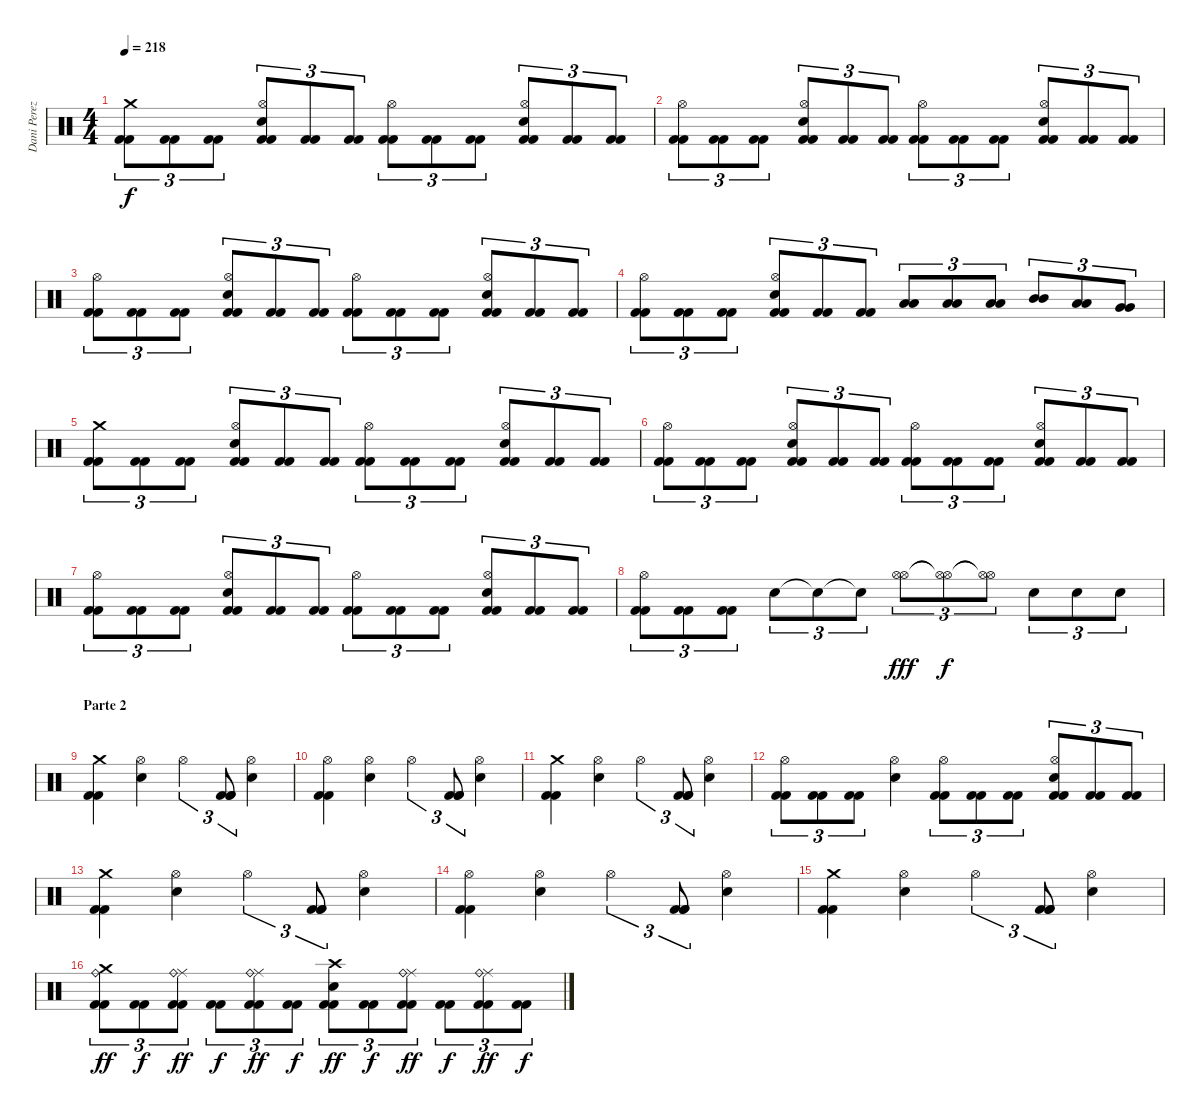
\track ("Dani Perez" "Dani Perez") {instrument percussion}
\staff {score}
\articulation defaults
\ts (4 4)
\tempo 218
\clef neutral
\ks c
("Crash medium (hit)" "Kick (hit) 2" "Kick (hit) 2").8{tu (3 2) dy f} ("Kick (hit) 2" "Kick (hit) 2").8{tu (3 2)} ("Kick (hit) 2" "Kick (hit) 2").8{tu (3 2)} ("Hi-Hat (open)" "Snare (hit) 2" "Kick (hit) 2" "Kick (hit) 2").8{tu (3 2)} ("Kick (hit) 2" "Kick (hit) 2").8{tu (3 2)} ("Kick (hit) 2" "Kick (hit) 2").8{tu (3 2)} ("Hi-Hat (open)" "Kick (hit) 2" "Kick (hit) 2").8{tu (3 2)} ("Kick (hit) 2" "Kick (hit) 2").8{tu (3 2)} ("Kick (hit) 2" "Kick (hit) 2").8{tu (3 2)} ("Hi-Hat (open)" "Snare (hit) 2" "Kick (hit) 2" "Kick (hit) 2").8{tu (3 2)} ("Kick (hit) 2" "Kick (hit) 2").8{tu (3 2)} ("Kick (hit) 2" "Kick (hit) 2").8{tu (3 2)} |
("Hi-Hat (open)" "Kick (hit) 2" "Kick (hit) 2").8{tu (3 2)} ("Kick (hit) 2" "Kick (hit) 2").8{tu (3 2)} ("Kick (hit) 2" "Kick (hit) 2").8{tu (3 2)} ("Hi-Hat (open)" "Snare (hit) 2" "Kick (hit) 2" "Kick (hit) 2").8{tu (3 2)} ("Kick (hit) 2" "Kick (hit) 2").8{tu (3 2)} ("Kick (hit) 2" "Kick (hit) 2").8{tu (3 2)} ("Hi-Hat (open)" "Kick (hit) 2" "Kick (hit) 2").8{tu (3 2)} ("Kick (hit) 2" "Kick (hit) 2").8{tu (3 2)} ("Kick (hit) 2" "Kick (hit) 2").8{tu (3 2)} ("Hi-Hat (open)" "Snare (hit) 2" "Kick (hit) 2" "Kick (hit) 2").8{tu (3 2)} ("Kick (hit) 2" "Kick (hit) 2").8{tu (3 2)} ("Kick (hit) 2" "Kick (hit) 2").8{tu (3 2)} |
("Hi-Hat (open)" "Kick (hit) 2" "Kick (hit) 2").8{tu (3 2)} ("Kick (hit) 2" "Kick (hit) 2").8{tu (3 2)} ("Kick (hit) 2" "Kick (hit) 2").8{tu (3 2)} ("Hi-Hat (open)" "Snare (hit) 2" "Kick (hit) 2" "Kick (hit) 2").8{tu (3 2)} ("Kick (hit) 2" "Kick (hit) 2").8{tu (3 2)} ("Kick (hit) 2" "Kick (hit) 2").8{tu (3 2)} ("Hi-Hat (open)" "Kick (hit) 2" "Kick (hit) 2").8{tu (3 2)} ("Kick (hit) 2" "Kick (hit) 2").8{tu (3 2)} ("Kick (hit) 2" "Kick (hit) 2").8{tu (3 2)} ("Hi-Hat (open)" "Snare (hit) 2" "Kick (hit) 2" "Kick (hit) 2").8{tu (3 2)} ("Kick (hit) 2" "Kick (hit) 2").8{tu (3 2)} ("Kick (hit) 2" "Kick (hit) 2").8{tu (3 2)} |
("Hi-Hat (open)" "Kick (hit) 2" "Kick (hit) 2").8{tu (3 2)} ("Kick (hit) 2" "Kick (hit) 2").8{tu (3 2)} ("Kick (hit) 2" "Kick (hit) 2").8{tu (3 2)} ("Hi-Hat (open)" "Snare (hit) 2" "Kick (hit) 2" "Kick (hit) 2").8{tu (3 2)} ("Kick (hit) 2" "Kick (hit) 2").8{tu (3 2)} ("Kick (hit) 2" "Kick (hit) 2").8{tu (3 2)} ("Low Tom (hit)" "Low Tom (hit)").8{tu (3 2)} ("Low Tom (hit)" "Low Tom (hit)").8{tu (3 2)} ("Low Tom (hit)" "Low Tom (hit)").8{tu (3 2)} ("Mid Tom (hit)" "Mid Tom (hit)").8{tu (3 2)} ("Low Tom (hit)" "Low Tom (hit)").8{tu (3 2)} ("Very Low Tom (hit)" "Very Low Tom (hit)").8{tu (3 2)} |
("Crash medium (hit)" "Kick (hit) 2" "Kick (hit) 2").8{tu (3 2)} ("Kick (hit) 2" "Kick (hit) 2").8{tu (3 2)} ("Kick (hit) 2" "Kick (hit) 2").8{tu (3 2)} ("Hi-Hat (open)" "Snare (hit) 2" "Kick (hit) 2" "Kick (hit) 2").8{tu (3 2)} ("Kick (hit) 2" "Kick (hit) 2").8{tu (3 2)} ("Kick (hit) 2" "Kick (hit) 2").8{tu (3 2)} ("Hi-Hat (open)" "Kick (hit) 2" "Kick (hit) 2").8{tu (3 2)} ("Kick (hit) 2" "Kick (hit) 2").8{tu (3 2)} ("Kick (hit) 2" "Kick (hit) 2").8{tu (3 2)} ("Hi-Hat (open)" "Snare (hit) 2" "Kick (hit) 2" "Kick (hit) 2").8{tu (3 2)} ("Kick (hit) 2" "Kick (hit) 2").8{tu (3 2)} ("Kick (hit) 2" "Kick (hit) 2").8{tu (3 2)} |
("Hi-Hat (open)" "Kick (hit) 2" "Kick (hit) 2").8{tu (3 2)} ("Kick (hit) 2" "Kick (hit) 2").8{tu (3 2)} ("Kick (hit) 2" "Kick (hit) 2").8{tu (3 2)} ("Hi-Hat (open)" "Snare (hit) 2" "Kick (hit) 2" "Kick (hit) 2").8{tu (3 2)} ("Kick (hit) 2" "Kick (hit) 2").8{tu (3 2)} ("Kick (hit) 2" "Kick (hit) 2").8{tu (3 2)} ("Hi-Hat (open)" "Kick (hit) 2" "Kick (hit) 2").8{tu (3 2)} ("Kick (hit) 2" "Kick (hit) 2").8{tu (3 2)} ("Kick (hit) 2" "Kick (hit) 2").8{tu (3 2)} ("Hi-Hat (open)" "Snare (hit) 2" "Kick (hit) 2" "Kick (hit) 2").8{tu (3 2)} ("Kick (hit) 2" "Kick (hit) 2").8{tu (3 2)} ("Kick (hit) 2" "Kick (hit) 2").8{tu (3 2)} |
("Hi-Hat (open)" "Kick (hit) 2" "Kick (hit) 2").8{tu (3 2)} ("Kick (hit) 2" "Kick (hit) 2").8{tu (3 2)} ("Kick (hit) 2" "Kick (hit) 2").8{tu (3 2)} ("Hi-Hat (open)" "Snare (hit) 2" "Kick (hit) 2" "Kick (hit) 2").8{tu (3 2)} ("Kick (hit) 2" "Kick (hit) 2").8{tu (3 2)} ("Kick (hit) 2" "Kick (hit) 2").8{tu (3 2)} ("Hi-Hat (open)" "Kick (hit) 2" "Kick (hit) 2").8{tu (3 2)} ("Kick (hit) 2" "Kick (hit) 2").8{tu (3 2)} ("Kick (hit) 2" "Kick (hit) 2").8{tu (3 2)} ("Hi-Hat (open)" "Snare (hit) 2" "Kick (hit) 2" "Kick (hit) 2").8{tu (3 2)} ("Kick (hit) 2" "Kick (hit) 2").8{tu (3 2)} ("Kick (hit) 2" "Kick (hit) 2").8{tu (3 2)} |
("Hi-Hat (open)" "Kick (hit) 2" "Kick (hit) 2").8{tu (3 2)} ("Kick (hit) 2" "Kick (hit) 2").8{tu (3 2)} ("Kick (hit) 2" "Kick (hit) 2").8{tu (3 2)} "Snare (hit) 2".8{tu (3 2)} "Snare (hit) 2"{t}.8{tu (3 2)} "Snare (hit) 2"{t}.8{tu (3 2)} ("Hi-Hat (open)" "Hi-Hat (open)").8{tu (3 2) dy fff} ("Hi-Hat (open)"{t} "Hi-Hat (open)"{t}).8{tu (3 2) dy f} ("Hi-Hat (open)"{t} "Hi-Hat (open)"{t}).8{tu (3 2)} "Snare (hit) 2".8{tu (3 2)} "Snare (hit) 2".8{tu (3 2)} "Snare (hit) 2".8{tu (3 2)} |
\section ("" "Parte 2")
("Crash medium (hit)" "Kick (hit) 2" "Kick (hit) 2").4 ("Hi-Hat (open)" "Snare (hit) 2").4 "Hi-Hat (open)".4{tu (3 2)} ("Kick (hit) 2" "Kick (hit) 2" "Kick (hit) 2").8{tu (3 2)} ("Hi-Hat (open)" "Snare (hit) 2").4 |
("Hi-Hat (open)" "Kick (hit) 2" "Kick (hit) 2").4 ("Hi-Hat (open)" "Snare (hit) 2").4 "Hi-Hat (open)".4{tu (3 2)} ("Kick (hit) 2" "Kick (hit) 2" "Kick (hit) 2").8{tu (3 2)} ("Hi-Hat (open)" "Snare (hit) 2").4 |
("Crash medium (hit)" "Kick (hit) 2" "Kick (hit) 2").4 ("Hi-Hat (open)" "Snare (hit) 2").4 "Hi-Hat (open)".4{tu (3 2)} ("Kick (hit) 2" "Kick (hit) 2" "Kick (hit) 2").8{tu (3 2)} ("Hi-Hat (open)" "Snare (hit) 2").4 |
("Hi-Hat (open)" "Kick (hit) 2" "Kick (hit) 2").8{tu (3 2)} ("Kick (hit) 2" "Kick (hit) 2").8{tu (3 2)} ("Kick (hit) 2" "Kick (hit) 2").8{tu (3 2)} ("Hi-Hat (open)" "Snare (hit) 2").4 ("Hi-Hat (open)" "Kick (hit) 2" "Kick (hit) 2").8{tu (3 2)} ("Kick (hit) 2" "Kick (hit) 2").8{tu (3 2)} ("Kick (hit) 2" "Kick (hit) 2").8{tu (3 2)} ("Hi-Hat (open)" "Snare (hit) 2" "Kick (hit) 2" "Kick (hit) 2").8{tu (3 2)} ("Kick (hit) 2" "Kick (hit) 2").8{tu (3 2)} ("Kick (hit) 2" "Kick (hit) 2").8{tu (3 2)} |
("Crash medium (hit)" "Kick (hit) 2" "Kick (hit) 2").4 ("Hi-Hat (open)" "Snare (hit) 2").4 "Hi-Hat (open)".4{tu (3 2)} ("Kick (hit) 2" "Kick (hit) 2" "Kick (hit) 2").8{tu (3 2)} ("Hi-Hat (open)" "Snare (hit) 2").4 |
("Hi-Hat (open)" "Kick (hit) 2" "Kick (hit) 2").4 ("Hi-Hat (open)" "Snare (hit) 2").4 "Hi-Hat (open)".4{tu (3 2)} ("Kick (hit) 2" "Kick (hit) 2" "Kick (hit) 2").8{tu (3 2)} ("Hi-Hat (open)" "Snare (hit) 2").4 |
("Crash medium (hit)" "Kick (hit) 2" "Kick (hit) 2").4 ("Hi-Hat (open)" "Snare (hit) 2").4 "Hi-Hat (open)".4{tu (3 2)} ("Kick (hit) 2" "Kick (hit) 2" "Kick (hit) 2").8{tu (3 2)} ("Hi-Hat (open)" "Snare (hit) 2").4 |
("Crash medium (hit)" "Ride (bell)" "Kick (hit) 2" "Kick (hit) 2").8{tu (3 2) dy ff} ("Kick (hit) 2" "Kick (hit) 2").8{tu (3 2) dy f} ("Ride (middle)" "Ride (bell)" "Kick (hit) 2" "Kick (hit) 2").8{tu (3 2) dy ff} ("Kick (hit) 2" "Kick (hit) 2").8{tu (3 2) dy f} ("Ride (middle)" "Ride (bell)" "Kick (hit) 2" "Kick (hit) 2").8{tu (3 2) dy ff} ("Kick (hit) 2" "Kick (hit) 2").8{tu (3 2) dy f} ("Snare (hit) 2" "Crash high (hit)" "Kick (hit) 2" "Kick (hit) 2").8{tu (3 2) dy ff} ("Kick (hit) 2" "Kick (hit) 2").8{tu (3 2) dy f} ("Ride (middle)" "Ride (bell)" "Kick (hit) 2" "Kick (hit) 2").8{tu (3 2) dy ff} ("Kick (hit) 2" "Kick (hit) 2").8{tu (3 2) dy f} ("Ride (middle)" "Ride (bell)" "Kick (hit) 2" "Kick (hit) 2").8{tu (3 2) dy ff} ("Kick (hit) 2" "Kick (hit) 2").8{tu (3 2) dy f}
